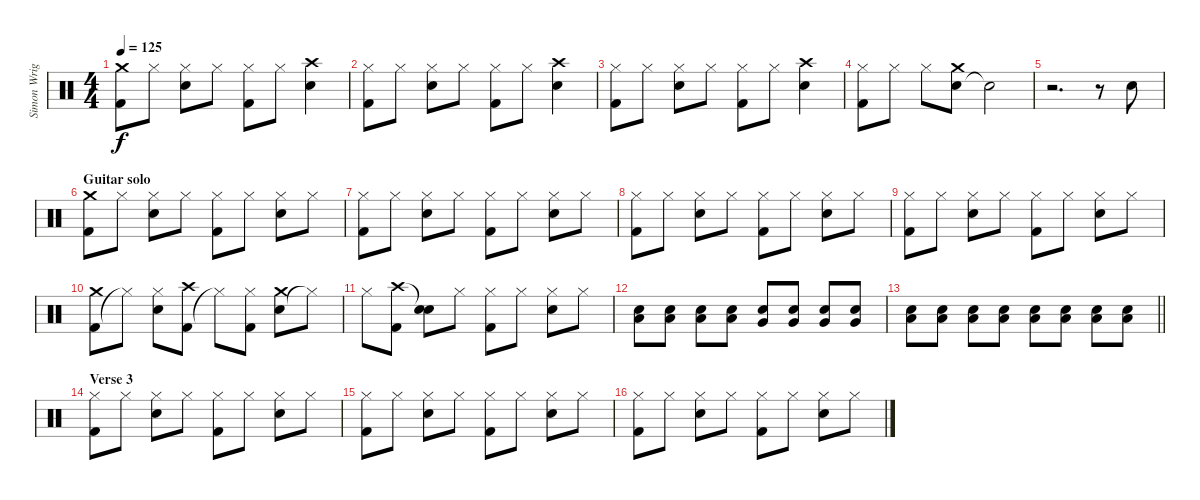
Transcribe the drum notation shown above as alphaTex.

\track ("Simon Wright" "Simon Wrig") {instrument percussion}
\staff {score}
\articulation defaults
\ts (4 4)
\tempo 125
\clef neutral
\ks c
("Kick (hit) 2" "Crash medium (hit)").8{dy f} "Hi-Hat (closed)".8 ("Snare (hit) 2" "Hi-Hat (closed)").8 "Hi-Hat (closed)".8 ("Kick (hit) 2" "Hi-Hat (closed)").8 "Hi-Hat (closed)".8 ("Snare (hit) 2" "Crash high (hit)").4 |
("Kick (hit) 2" "Hi-Hat (closed)").8 "Hi-Hat (closed)".8 ("Snare (hit) 2" "Hi-Hat (closed)").8 "Hi-Hat (closed)".8 ("Kick (hit) 2" "Hi-Hat (closed)").8 "Hi-Hat (closed)".8 ("Snare (hit) 2" "Crash high (hit)").4 |
("Kick (hit) 2" "Hi-Hat (closed)").8 "Hi-Hat (closed)".8 ("Snare (hit) 2" "Hi-Hat (closed)").8 "Hi-Hat (closed)".8 ("Kick (hit) 2" "Hi-Hat (closed)").8 "Hi-Hat (closed)".8 ("Snare (hit) 2" "Crash high (hit)").4 |
("Kick (hit) 2" "Hi-Hat (closed)").8 "Hi-Hat (closed)".8 "Hi-Hat (closed)".8 ("Snare (hit) 2" "Crash medium (hit)").8 "Snare (hit)"{t}.2 |
r.2{d} r.8 "Snare (hit) 2".8 |
\section ("" "Guitar solo")
("Kick (hit) 2" "Crash medium (hit)").8 "Hi-Hat (closed)".8 ("Snare (hit) 2" "Hi-Hat (closed)").8 "Hi-Hat (closed)".8 ("Kick (hit) 2" "Hi-Hat (closed)").8 "Hi-Hat (closed)".8 ("Snare (hit) 2" "Hi-Hat (closed)").8 "Hi-Hat (closed)".8 |
("Kick (hit) 2" "Hi-Hat (closed)").8 "Hi-Hat (closed)".8 ("Snare (hit) 2" "Hi-Hat (closed)").8 "Hi-Hat (closed)".8 ("Kick (hit) 2" "Hi-Hat (closed)").8 "Hi-Hat (closed)".8 ("Snare (hit) 2" "Hi-Hat (closed)").8 "Hi-Hat (closed)".8 |
("Kick (hit) 2" "Hi-Hat (closed)").8 "Hi-Hat (closed)".8 ("Snare (hit) 2" "Hi-Hat (closed)").8 "Hi-Hat (closed)".8 ("Kick (hit) 2" "Hi-Hat (closed)").8 "Hi-Hat (closed)".8 ("Snare (hit) 2" "Hi-Hat (closed)").8 "Hi-Hat (closed)".8 |
("Kick (hit) 2" "Hi-Hat (closed)").8 "Hi-Hat (closed)".8 ("Snare (hit) 2" "Hi-Hat (closed)").8 "Hi-Hat (closed)".8 ("Kick (hit) 2" "Hi-Hat (closed)").8 "Hi-Hat (closed)".8 ("Snare (hit) 2" "Hi-Hat (closed)").8 "Hi-Hat (closed)".8 |
("Kick (hit) 2" "Crash medium (hit)").8 "Hi-Hat (closed)"{t}.8 ("Snare (hit) 2" "Hi-Hat (closed)").8 ("Kick (hit) 2" "Crash high (hit)").8 "Hi-Hat (closed)"{t}.8 ("Kick (hit) 2" "Hi-Hat (closed)").8 ("Snare (hit) 2" "Crash medium (hit)").8 "Hi-Hat (closed)"{t}.8 |
"Hi-Hat (closed)".8 ("Kick (hit) 2" "Crash high (hit)").8 ("Snare (hit) 2" "Snare (hit)"{t}).8 "Hi-Hat (closed)".8 ("Kick (hit) 2" "Hi-Hat (closed)").8 "Hi-Hat (closed)".8 ("Snare (hit) 2" "Hi-Hat (closed)").8 "Hi-Hat (closed)".8 |
("Snare (hit) 2" "Low Tom (hit)").8 ("Snare (hit) 2" "Low Tom (hit)").8 ("Snare (hit) 2" "Low Tom (hit)").8 ("Snare (hit) 2" "Low Tom (hit)").8 ("Snare (hit) 2" "Very Low Tom (hit)").8 ("Snare (hit) 2" "Very Low Tom (hit)").8 ("Snare (hit) 2" "Very Low Tom (hit)").8 ("Snare (hit) 2" "Very Low Tom (hit)").8 |
\barLineRight lightlight
("Snare (hit) 2" "Low Floor Tom (hit)").8 ("Snare (hit) 2" "Low Floor Tom (hit)").8 ("Snare (hit) 2" "Low Floor Tom (hit)").8 ("Snare (hit) 2" "Low Floor Tom (hit)").8 ("Snare (hit) 2" "Low Floor Tom (hit)").8 ("Snare (hit) 2" "Low Floor Tom (hit)").8 ("Snare (hit) 2" "Low Floor Tom (hit)").8 ("Snare (hit) 2" "Low Floor Tom (hit)").8 |
\section ("" "Verse 3")
("Kick (hit) 2" "Hi-Hat (closed)").8 "Hi-Hat (closed)".8 ("Snare (hit) 2" "Hi-Hat (closed)").8 "Hi-Hat (closed)".8 ("Kick (hit) 2" "Hi-Hat (closed)").8 "Hi-Hat (closed)".8 ("Snare (hit) 2" "Hi-Hat (closed)").8 "Hi-Hat (closed)".8 |
("Kick (hit) 2" "Hi-Hat (closed)").8 "Hi-Hat (closed)".8 ("Snare (hit) 2" "Hi-Hat (closed)").8 "Hi-Hat (closed)".8 ("Kick (hit) 2" "Hi-Hat (closed)").8 "Hi-Hat (closed)".8 ("Snare (hit) 2" "Hi-Hat (closed)").8 "Hi-Hat (closed)".8 |
("Kick (hit) 2" "Hi-Hat (closed)").8 "Hi-Hat (closed)".8 ("Snare (hit) 2" "Hi-Hat (closed)").8 "Hi-Hat (closed)".8 ("Kick (hit) 2" "Hi-Hat (closed)").8 "Hi-Hat (closed)".8 ("Snare (hit) 2" "Hi-Hat (closed)").8 "Hi-Hat (closed)".8
